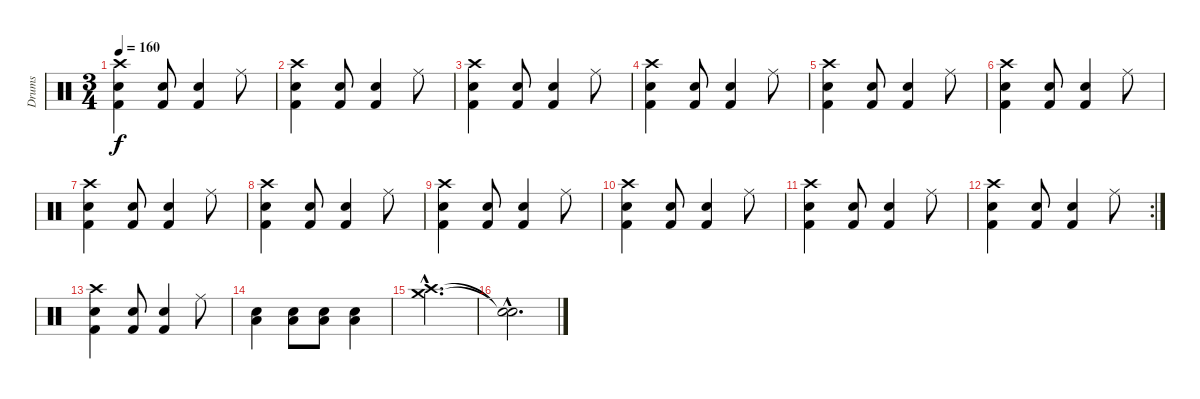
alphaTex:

\track ("Drums" "Drums") {instrument percussion}
\staff {score}
\articulation defaults
\ts (3 4)
\tempo 160
\clef neutral
\ks c
("Crash high (hit)" "Kick (hit) 2" "Snare (hit) 2").4{dy f} ("Kick (hit) 2" "Snare (hit) 2").8 ("Kick (hit) 2" "Snare (hit) 2").4 "Ride (middle)".8 |
("Crash high (hit)" "Kick (hit) 2" "Snare (hit) 2").4 ("Kick (hit) 2" "Snare (hit) 2").8 ("Kick (hit) 2" "Snare (hit) 2").4 "Ride (middle)".8 |
("Crash high (hit)" "Kick (hit) 2" "Snare (hit) 2").4 ("Kick (hit) 2" "Snare (hit) 2").8 ("Kick (hit) 2" "Snare (hit) 2").4 "Ride (middle)".8 |
("Crash high (hit)" "Kick (hit) 2" "Snare (hit) 2").4 ("Kick (hit) 2" "Snare (hit) 2").8 ("Kick (hit) 2" "Snare (hit) 2").4 "Ride (middle)".8 |
("Crash high (hit)" "Kick (hit) 2" "Snare (hit) 2").4 ("Kick (hit) 2" "Snare (hit) 2").8 ("Kick (hit) 2" "Snare (hit) 2").4 "Ride (middle)".8 |
("Crash high (hit)" "Kick (hit) 2" "Snare (hit) 2").4 ("Kick (hit) 2" "Snare (hit) 2").8 ("Kick (hit) 2" "Snare (hit) 2").4 "Ride (middle)".8 |
("Crash high (hit)" "Kick (hit) 2" "Snare (hit) 2").4 ("Kick (hit) 2" "Snare (hit) 2").8 ("Kick (hit) 2" "Snare (hit) 2").4 "Ride (middle)".8 |
("Crash high (hit)" "Kick (hit) 2" "Snare (hit) 2").4 ("Kick (hit) 2" "Snare (hit) 2").8 ("Kick (hit) 2" "Snare (hit) 2").4 "Ride (middle)".8 |
("Crash high (hit)" "Kick (hit) 2" "Snare (hit) 2").4 ("Kick (hit) 2" "Snare (hit) 2").8 ("Kick (hit) 2" "Snare (hit) 2").4 "Ride (middle)".8 |
("Crash high (hit)" "Kick (hit) 2" "Snare (hit) 2").4 ("Kick (hit) 2" "Snare (hit) 2").8 ("Kick (hit) 2" "Snare (hit) 2").4 "Ride (middle)".8 |
("Crash high (hit)" "Kick (hit) 2" "Snare (hit) 2").4 ("Kick (hit) 2" "Snare (hit) 2").8 ("Kick (hit) 2" "Snare (hit) 2").4 "Ride (middle)".8 |
\rc 2
("Crash high (hit)" "Kick (hit) 2" "Snare (hit) 2").4 ("Kick (hit) 2" "Snare (hit) 2").8 ("Kick (hit) 2" "Snare (hit) 2").4 "Ride (middle)".8 |
("Crash high (hit)" "Kick (hit) 2" "Snare (hit) 2").4 ("Kick (hit) 2" "Snare (hit) 2").8 ("Kick (hit) 2" "Snare (hit) 2").4 "Ride (middle)".8 |
("Low Floor Tom (hit)" "Electric Snare (hit)").4 ("Low Floor Tom (hit)" "Electric Snare (hit)").8 ("Low Floor Tom (hit)" "Electric Snare (hit)").8 ("Low Floor Tom (hit)" "Electric Snare (hit)").4 |
("Crash high (hit)"{hac} "Crash medium (hit)"{hac}).2{d} |
("Snare (hit)"{hac t} "Snare (hit)"{hac t}).2{d}
